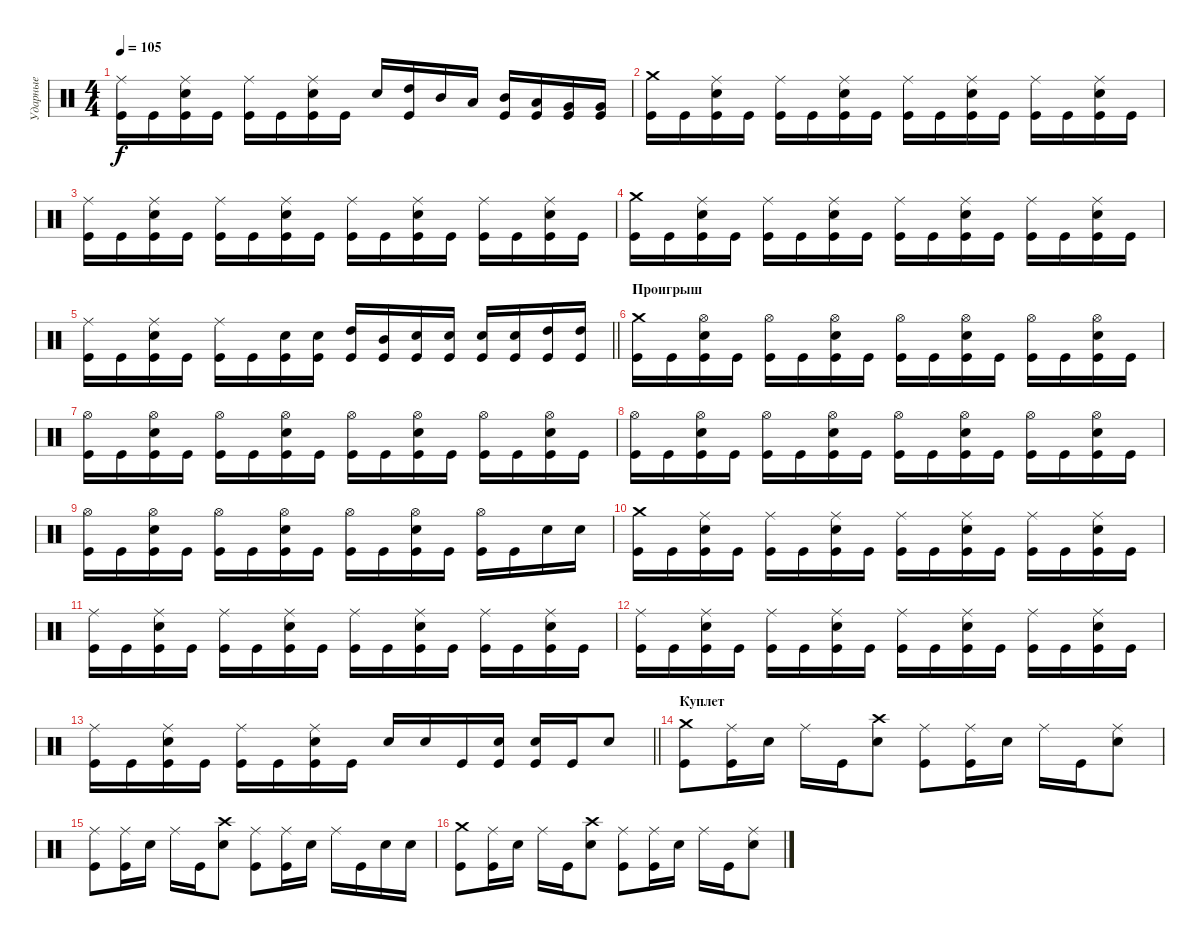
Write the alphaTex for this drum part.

\track ("Ударные" "Ударные") {instrument percussion}
\staff {score}
\articulation defaults
\ts (4 4)
\tempo 105
\clef neutral
\ks c
("Kick (hit)" "Ride (middle)").16{dy f} "Kick (hit)".16 ("Kick (hit)" "Snare (hit) 2" "Ride (middle)").16 "Kick (hit)".16 ("Kick (hit)" "Ride (middle)").16 "Kick (hit)".16 ("Kick (hit)" "Snare (hit) 2" "Ride (middle)").16 "Kick (hit)".16 "Snare (hit) 2".16 ("Kick (hit)" "High Tom (hit)").16 "Mid Tom (hit)".16 "Low Tom (hit)".16 ("Kick (hit)" "Mid Tom (hit)").16 ("Kick (hit)" "Low Tom (hit)").16 ("Kick (hit)" "Very Low Tom (hit)").16 ("Kick (hit)" "Very Low Tom (hit)").16 |
("Kick (hit)" "Crash medium (hit)").16 "Kick (hit)".16 ("Kick (hit)" "Snare (hit) 2" "Ride (middle)").16 "Kick (hit)".16 ("Kick (hit)" "Ride (middle)").16 "Kick (hit)".16 ("Kick (hit)" "Snare (hit) 2" "Ride (middle)").16 "Kick (hit)".16 ("Kick (hit)" "Ride (middle)").16 "Kick (hit)".16 ("Kick (hit)" "Snare (hit) 2" "Ride (middle)").16 "Kick (hit)".16 ("Kick (hit)" "Ride (middle)").16 "Kick (hit)".16 ("Kick (hit)" "Snare (hit) 2" "Ride (middle)").16 "Kick (hit)".16 |
("Kick (hit)" "Ride (middle)").16 "Kick (hit)".16 ("Kick (hit)" "Snare (hit) 2" "Ride (middle)").16 "Kick (hit)".16 ("Kick (hit)" "Ride (middle)").16 "Kick (hit)".16 ("Kick (hit)" "Snare (hit) 2" "Ride (middle)").16 "Kick (hit)".16 ("Kick (hit)" "Ride (middle)").16 "Kick (hit)".16 ("Kick (hit)" "Snare (hit) 2" "Ride (middle)").16 "Kick (hit)".16 ("Kick (hit)" "Ride (middle)").16 "Kick (hit)".16 ("Kick (hit)" "Snare (hit) 2" "Ride (middle)").16 "Kick (hit)".16 |
("Kick (hit)" "Crash medium (hit)").16 "Kick (hit)".16 ("Kick (hit)" "Snare (hit) 2" "Ride (middle)").16 "Kick (hit)".16 ("Kick (hit)" "Ride (middle)").16 "Kick (hit)".16 ("Kick (hit)" "Snare (hit) 2" "Ride (middle)").16 "Kick (hit)".16 ("Kick (hit)" "Ride (middle)").16 "Kick (hit)".16 ("Kick (hit)" "Snare (hit) 2" "Ride (middle)").16 "Kick (hit)".16 ("Kick (hit)" "Ride (middle)").16 "Kick (hit)".16 ("Kick (hit)" "Snare (hit) 2" "Ride (middle)").16 "Kick (hit)".16 |
\barLineRight lightlight
("Kick (hit)" "Ride (middle)").16 "Kick (hit)".16 ("Kick (hit)" "Snare (hit) 2" "Ride (middle)").16 "Kick (hit)".16 ("Kick (hit)" "Ride (middle)").16 "Kick (hit)".16 ("Kick (hit)" "Snare (hit) 2").16 ("Kick (hit)" "Snare (hit) 2").16 ("Kick (hit)" "High Tom (hit)").16 ("Kick (hit)" "Mid Tom (hit)").16 ("Kick (hit)" "Snare (hit) 2").16 ("Kick (hit)" "Snare (hit) 2").16 ("Kick (hit)" "Snare (hit) 2").16 ("Kick (hit)" "Snare (hit) 2").16 ("Kick (hit)" "High Tom (hit)").16 ("Kick (hit)" "High Tom (hit)").16 |
\section ("" "Проигрыш")
("Kick (hit)" "Crash medium (hit)").16 "Kick (hit)".16 ("Kick (hit)" "Snare (hit) 2" "Hi-Hat (open)").16 "Kick (hit)".16 ("Kick (hit)" "Hi-Hat (open)").16 "Kick (hit)".16 ("Kick (hit)" "Snare (hit) 2" "Hi-Hat (open)").16 "Kick (hit)".16 ("Kick (hit)" "Hi-Hat (open)").16 "Kick (hit)".16 ("Kick (hit)" "Snare (hit) 2" "Hi-Hat (open)").16 "Kick (hit)".16 ("Kick (hit)" "Hi-Hat (open)").16 "Kick (hit)".16 ("Kick (hit)" "Snare (hit) 2" "Hi-Hat (open)").16 "Kick (hit)".16 |
("Kick (hit)" "Hi-Hat (open)").16 "Kick (hit)".16 ("Kick (hit)" "Snare (hit) 2" "Hi-Hat (open)").16 "Kick (hit)".16 ("Kick (hit)" "Hi-Hat (open)").16 "Kick (hit)".16 ("Kick (hit)" "Snare (hit) 2" "Hi-Hat (open)").16 "Kick (hit)".16 ("Kick (hit)" "Hi-Hat (open)").16 "Kick (hit)".16 ("Kick (hit)" "Snare (hit) 2" "Hi-Hat (open)").16 "Kick (hit)".16 ("Kick (hit)" "Hi-Hat (open)").16 "Kick (hit)".16 ("Kick (hit)" "Snare (hit) 2" "Hi-Hat (open)").16 "Kick (hit)".16 |
("Kick (hit)" "Hi-Hat (open)").16 "Kick (hit)".16 ("Kick (hit)" "Snare (hit) 2" "Hi-Hat (open)").16 "Kick (hit)".16 ("Kick (hit)" "Hi-Hat (open)").16 "Kick (hit)".16 ("Kick (hit)" "Snare (hit) 2" "Hi-Hat (open)").16 "Kick (hit)".16 ("Kick (hit)" "Hi-Hat (open)").16 "Kick (hit)".16 ("Kick (hit)" "Snare (hit) 2" "Hi-Hat (open)").16 "Kick (hit)".16 ("Kick (hit)" "Hi-Hat (open)").16 "Kick (hit)".16 ("Kick (hit)" "Snare (hit) 2" "Hi-Hat (open)").16 "Kick (hit)".16 |
("Kick (hit)" "Hi-Hat (open)").16 "Kick (hit)".16 ("Kick (hit)" "Snare (hit) 2" "Hi-Hat (open)").16 "Kick (hit)".16 ("Kick (hit)" "Hi-Hat (open)").16 "Kick (hit)".16 ("Kick (hit)" "Snare (hit) 2" "Hi-Hat (open)").16 "Kick (hit)".16 ("Kick (hit)" "Hi-Hat (open)").16 "Kick (hit)".16 ("Kick (hit)" "Snare (hit) 2" "Hi-Hat (open)").16 "Kick (hit)".16 ("Kick (hit)" "Hi-Hat (open)").16 "Kick (hit)".16 "Snare (hit) 2".16 "Snare (hit) 2".16 |
("Kick (hit)" "Crash medium (hit)").16 "Kick (hit)".16 ("Kick (hit)" "Snare (hit) 2" "Ride (middle)").16 "Kick (hit)".16 ("Kick (hit)" "Ride (middle)").16 "Kick (hit)".16 ("Kick (hit)" "Snare (hit) 2" "Ride (middle)").16 "Kick (hit)".16 ("Kick (hit)" "Ride (middle)").16 "Kick (hit)".16 ("Kick (hit)" "Snare (hit) 2" "Ride (middle)").16 "Kick (hit)".16 ("Kick (hit)" "Ride (middle)").16 "Kick (hit)".16 ("Kick (hit)" "Snare (hit) 2" "Ride (middle)").16 "Kick (hit)".16 |
("Kick (hit)" "Ride (middle)").16 "Kick (hit)".16 ("Kick (hit)" "Snare (hit) 2" "Ride (middle)").16 "Kick (hit)".16 ("Kick (hit)" "Ride (middle)").16 "Kick (hit)".16 ("Kick (hit)" "Snare (hit) 2" "Ride (middle)").16 "Kick (hit)".16 ("Kick (hit)" "Ride (middle)").16 "Kick (hit)".16 ("Kick (hit)" "Snare (hit) 2" "Ride (middle)").16 "Kick (hit)".16 ("Kick (hit)" "Ride (middle)").16 "Kick (hit)".16 ("Kick (hit)" "Snare (hit) 2" "Ride (middle)").16 "Kick (hit)".16 |
("Kick (hit)" "Ride (middle)").16 "Kick (hit)".16 ("Kick (hit)" "Snare (hit) 2" "Ride (middle)").16 "Kick (hit)".16 ("Kick (hit)" "Ride (middle)").16 "Kick (hit)".16 ("Kick (hit)" "Snare (hit) 2" "Ride (middle)").16 "Kick (hit)".16 ("Kick (hit)" "Ride (middle)").16 "Kick (hit)".16 ("Kick (hit)" "Snare (hit) 2" "Ride (middle)").16 "Kick (hit)".16 ("Kick (hit)" "Ride (middle)").16 "Kick (hit)".16 ("Kick (hit)" "Snare (hit) 2" "Ride (middle)").16 "Kick (hit)".16 |
\barLineRight lightlight
("Kick (hit)" "Ride (middle)").16 "Kick (hit)".16 ("Kick (hit)" "Snare (hit) 2" "Ride (middle)").16 "Kick (hit)".16 ("Kick (hit)" "Ride (middle)").16 "Kick (hit)".16 ("Kick (hit)" "Snare (hit) 2" "Ride (middle)").16 "Kick (hit)".16 "Snare (hit) 2".16 "Snare (hit) 2".16 "Kick (hit)".16 ("Kick (hit)" "Snare (hit) 2").16 ("Kick (hit)" "Snare (hit) 2").16 "Kick (hit)".16 "Snare (hit) 2".8 |
\section ("" "Куплет")
("Kick (hit)" "Crash medium (hit)").8 ("Kick (hit)" "Ride (middle)").16 "Snare (hit) 2".16 "Ride (middle)".16 "Kick (hit)".16 ("Snare (hit) 2" "Crash high (hit)").8 ("Kick (hit)" "Ride (middle)").8 ("Kick (hit)" "Ride (middle)").16 "Snare (hit) 2".16 "Ride (middle)".16 "Kick (hit)".16 ("Snare (hit) 2" "Ride (middle)").8 |
("Kick (hit)" "Ride (middle)").8 ("Kick (hit)" "Ride (middle)").16 "Snare (hit) 2".16 "Ride (middle)".16 "Kick (hit)".16 ("Snare (hit) 2" "Crash high (hit)").8 ("Kick (hit)" "Ride (middle)").8 ("Kick (hit)" "Ride (middle)").16 "Snare (hit) 2".16 "Ride (middle)".16 "Kick (hit)".16 "Snare (hit) 2".16 "Snare (hit) 2".16 |
("Kick (hit)" "Crash medium (hit)").8 ("Kick (hit)" "Ride (middle)").16 "Snare (hit) 2".16 "Ride (middle)".16 "Kick (hit)".16 ("Snare (hit) 2" "Crash high (hit)").8 ("Kick (hit)" "Ride (middle)").8 ("Kick (hit)" "Ride (middle)").16 "Snare (hit) 2".16 "Ride (middle)".16 "Kick (hit)".16 ("Snare (hit) 2" "Ride (middle)").8
